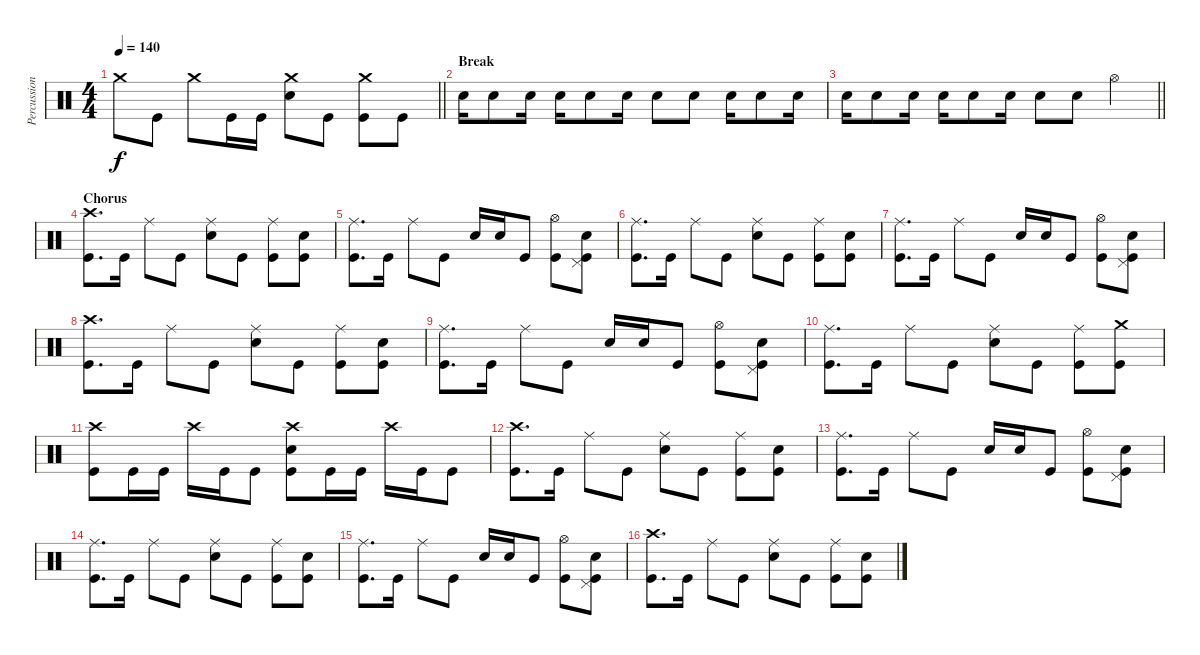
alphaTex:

\track ("Percussion" "Percussion") {instrument percussion}
\staff {score}
\articulation defaults
\ts (4 4)
\tempo 140
\clef neutral
\barLineRight lightlight
\ks c "Crash medium (hit)".8{dy f} "Kick (hit)".8 "Crash medium (hit)".8 "Kick (hit)".16 "Kick (hit)".16
("Crash medium (hit)" "Electric Snare (hit)").8 "Kick (hit)".8 ("Crash medium (hit)" "Kick (hit)").8 "Kick (hit)".8 |
\section ("" "Break")
"Electric Snare (hit)".16 "Electric Snare (hit)".8 "Electric Snare (hit)".16 "Electric Snare (hit)".16 "Electric Snare (hit)".8 "Electric Snare (hit)".16 "Electric Snare (hit)".8 "Electric Snare (hit)".8 "Electric Snare (hit)".16 "Electric Snare (hit)".8 "Electric Snare (hit)".16 |
\barLineRight lightlight "Electric Snare (hit)".16 "Electric Snare (hit)".8 "Electric Snare (hit)".16 "Electric Snare (hit)".16 "Electric Snare (hit)".8 "Electric Snare (hit)".16 "Electric Snare (hit)".8 "Electric Snare (hit)".8 "Hi-Hat (open)".4
|
\section ("" "Chorus")
("Crash high (hit)" "Kick (hit)").8{d} "Kick (hit)".16 "Ride (middle)".8 "Kick (hit)".8 ("Ride (middle)" "Electric Snare (hit)").8 "Kick (hit)".8 ("Ride (middle)" "Kick (hit)").8 ("Electric Snare (hit)" "Kick (hit)").8 |
("Ride (middle)" "Kick (hit)").8{d} "Kick (hit)".16 "Ride (middle)".8 "Kick (hit)".8 "Electric Snare (hit)".16 "Electric Snare (hit)".16 "Kick (hit)".8 ("Hi-Hat (open)" "Kick (hit)").8 ("Pedal Hi-Hat (hit)" "Electric Snare (hit)" "Kick (hit)").8 |
("Ride (middle)" "Kick (hit)").8{d} "Kick (hit)".16 "Ride (middle)".8 "Kick (hit)".8 ("Ride (middle)" "Electric Snare (hit)").8 "Kick (hit)".8 ("Ride (middle)" "Kick (hit)").8 ("Electric Snare (hit)" "Kick (hit)").8 |
("Ride (middle)" "Kick (hit)").8{d} "Kick (hit)".16 "Ride (middle)".8 "Kick (hit)".8 "Electric Snare (hit)".16 "Electric Snare (hit)".16 "Kick (hit)".8 ("Hi-Hat (open)" "Kick (hit)").8 ("Pedal Hi-Hat (hit)" "Electric Snare (hit)" "Kick (hit)").8 |
("Crash high (hit)" "Kick (hit)").8{d} "Kick (hit)".16 "Ride (middle)".8 "Kick (hit)".8 ("Ride (middle)" "Electric Snare (hit)").8 "Kick (hit)".8 ("Ride (middle)" "Kick (hit)").8 ("Electric Snare (hit)" "Kick (hit)").8 |
("Ride (middle)" "Kick (hit)").8{d} "Kick (hit)".16 "Ride (middle)".8 "Kick (hit)".8 "Electric Snare (hit)".16 "Electric Snare (hit)".16 "Kick (hit)".8 ("Hi-Hat (open)" "Kick (hit)").8 ("Pedal Hi-Hat (hit)" "Electric Snare (hit)" "Kick (hit)").8 |
("Ride (middle)" "Kick (hit)").8{d} "Kick (hit)".16 "Ride (middle)".8 "Kick (hit)".8 ("Ride (middle)" "Electric Snare (hit)").8 "Kick (hit)".8 ("Ride (middle)" "Kick (hit)").8 ("Crash medium (hit)" "Kick (hit)").8 |
("Crash high (hit)" "Kick (hit)").8 "Kick (hit)".16 "Kick (hit)".16 "Crash high (hit)".16 "Kick (hit)".16 "Kick (hit)".8 ("Crash high (hit)" "Electric Snare (hit)" "Kick (hit)").8 "Kick (hit)".16 "Kick (hit)".16 "Crash high (hit)".16 "Kick (hit)".16 "Kick (hit)".8 |
("Crash high (hit)" "Kick (hit)").8{d} "Kick (hit)".16 "Ride (middle)".8 "Kick (hit)".8 ("Ride (middle)" "Electric Snare (hit)").8 "Kick (hit)".8 ("Ride (middle)" "Kick (hit)").8 ("Electric Snare (hit)" "Kick (hit)").8 |
("Ride (middle)" "Kick (hit)").8{d} "Kick (hit)".16 "Ride (middle)".8 "Kick (hit)".8 "Electric Snare (hit)".16 "Electric Snare (hit)".16 "Kick (hit)".8 ("Hi-Hat (open)" "Kick (hit)").8 ("Pedal Hi-Hat (hit)" "Electric Snare (hit)" "Kick (hit)").8 |
("Ride (middle)" "Kick (hit)").8{d} "Kick (hit)".16 "Ride (middle)".8 "Kick (hit)".8 ("Ride (middle)" "Electric Snare (hit)").8 "Kick (hit)".8 ("Ride (middle)" "Kick (hit)").8 ("Electric Snare (hit)" "Kick (hit)").8 |
("Ride (middle)" "Kick (hit)").8{d} "Kick (hit)".16 "Ride (middle)".8 "Kick (hit)".8 "Electric Snare (hit)".16 "Electric Snare (hit)".16 "Kick (hit)".8 ("Hi-Hat (open)" "Kick (hit)").8 ("Pedal Hi-Hat (hit)" "Electric Snare (hit)" "Kick (hit)").8 |
("Crash high (hit)" "Kick (hit)").8{d} "Kick (hit)".16 "Ride (middle)".8 "Kick (hit)".8 ("Ride (middle)" "Electric Snare (hit)").8 "Kick (hit)".8 ("Ride (middle)" "Kick (hit)").8 ("Electric Snare (hit)" "Kick (hit)").8
